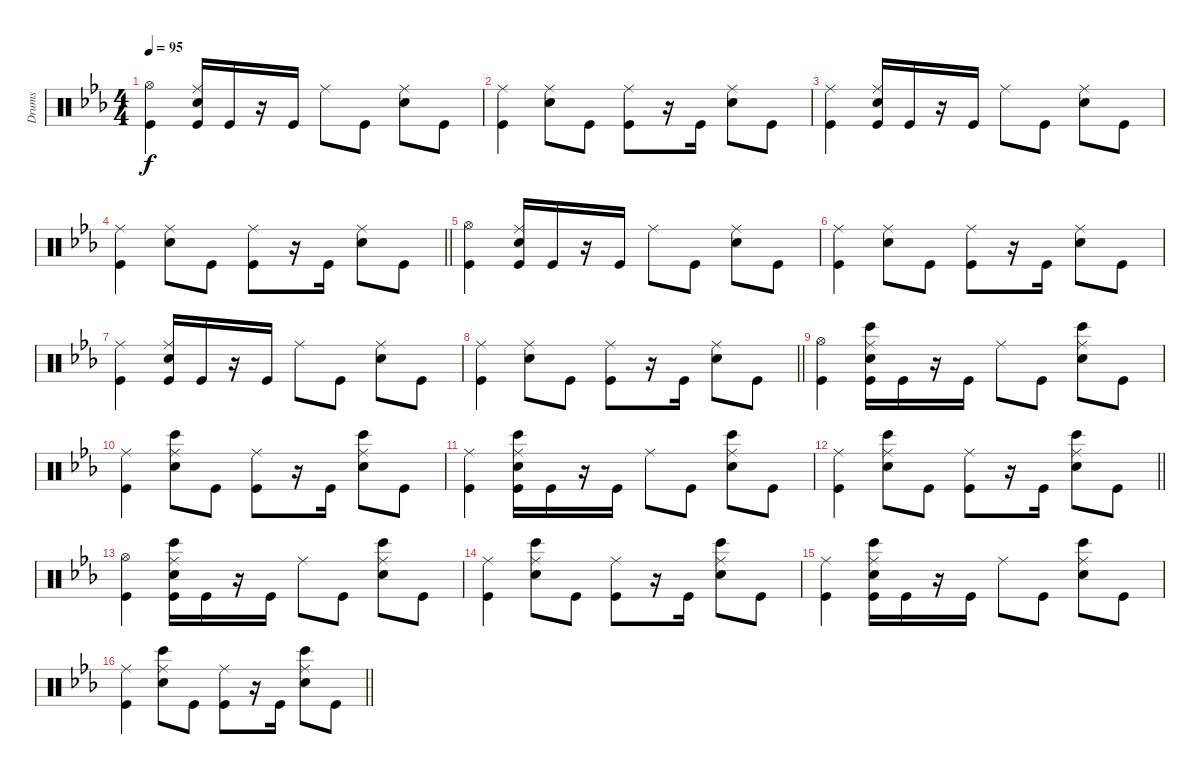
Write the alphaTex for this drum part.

\track ("Drums" "Drums") {instrument percussion}
\staff {score}
\articulation defaults
\ts (4 4)
\tempo 95
\clef neutral
\ks eb
("Kick (hit)" "Hi-Hat (open)").4{dy f} ("Kick (hit)" "Ride (middle)" "Snare (hit) 2").16 "Kick (hit)".16 r.16 "Kick (hit)".16 "Ride (middle)".8 "Kick (hit)".8 ("Ride (middle)" "Snare (hit) 2").8 "Kick (hit)".8 |
("Kick (hit)" "Ride (middle)").4 ("Ride (middle)" "Snare (hit) 2").8 "Kick (hit)".8 ("Kick (hit)" "Ride (middle)").8 r.16 "Kick (hit)".16 ("Ride (middle)" "Snare (hit) 2").8 "Kick (hit)".8 |
("Kick (hit)" "Ride (middle)").4 ("Kick (hit)" "Ride (middle)" "Snare (hit) 2").16 "Kick (hit)".16 r.16 "Kick (hit)".16 "Ride (middle)".8 "Kick (hit)".8 ("Ride (middle)" "Snare (hit) 2").8 "Kick (hit)".8 |
\barLineRight lightlight
("Kick (hit)" "Ride (middle)").4 ("Ride (middle)" "Snare (hit) 2").8 "Kick (hit)".8 ("Kick (hit)" "Ride (middle)").8 r.16 "Kick (hit)".16 ("Ride (middle)" "Snare (hit) 2").8 "Kick (hit)".8 |
("Kick (hit)" "Hi-Hat (open)").4 ("Kick (hit)" "Ride (middle)" "Snare (hit) 2").16 "Kick (hit)".16 r.16 "Kick (hit)".16 "Ride (middle)".8 "Kick (hit)".8 ("Ride (middle)" "Snare (hit) 2").8 "Kick (hit)".8 |
("Kick (hit)" "Ride (middle)").4 ("Ride (middle)" "Snare (hit) 2").8 "Kick (hit)".8 ("Kick (hit)" "Ride (middle)").8 r.16 "Kick (hit)".16 ("Ride (middle)" "Snare (hit) 2").8 "Kick (hit)".8 |
("Kick (hit)" "Ride (middle)").4 ("Kick (hit)" "Ride (middle)" "Snare (hit) 2").16 "Kick (hit)".16 r.16 "Kick (hit)".16 "Ride (middle)".8 "Kick (hit)".8 ("Ride (middle)" "Snare (hit) 2").8 "Kick (hit)".8 |
\barLineRight lightlight
("Kick (hit)" "Ride (middle)").4 ("Ride (middle)" "Snare (hit) 2").8 "Kick (hit)".8 ("Kick (hit)" "Ride (middle)").8 r.16 "Kick (hit)".16 ("Ride (middle)" "Snare (hit) 2").8 "Kick (hit)".8 |
("Kick (hit)" "Hi-Hat (open)").4 ("Kick (hit)" "Ride (middle)" "Snare (hit) 2" "Bongo High (hit)").16 "Kick (hit)".16 r.16 "Kick (hit)".16 "Ride (middle)".8 "Kick (hit)".8 ("Ride (middle)" "Snare (hit) 2" "Bongo High (hit)").8 "Kick (hit)".8 |
("Kick (hit)" "Ride (middle)").4 ("Ride (middle)" "Snare (hit) 2" "Bongo High (hit)").8 "Kick (hit)".8 ("Kick (hit)" "Ride (middle)").8 r.16 "Kick (hit)".16 ("Ride (middle)" "Snare (hit) 2" "Bongo High (hit)").8 "Kick (hit)".8 |
("Kick (hit)" "Ride (middle)").4 ("Kick (hit)" "Ride (middle)" "Snare (hit) 2" "Bongo High (hit)").16 "Kick (hit)".16 r.16 "Kick (hit)".16 "Ride (middle)".8 "Kick (hit)".8 ("Ride (middle)" "Snare (hit) 2" "Bongo High (hit)").8 "Kick (hit)".8 |
\barLineRight lightlight
("Kick (hit)" "Ride (middle)").4 ("Ride (middle)" "Snare (hit) 2" "Bongo High (hit)").8 "Kick (hit)".8 ("Kick (hit)" "Ride (middle)").8 r.16 "Kick (hit)".16 ("Ride (middle)" "Snare (hit) 2" "Bongo High (hit)").8 "Kick (hit)".8 |
("Kick (hit)" "Hi-Hat (open)").4 ("Kick (hit)" "Ride (middle)" "Snare (hit) 2" "Bongo High (hit)").16 "Kick (hit)".16 r.16 "Kick (hit)".16 "Ride (middle)".8 "Kick (hit)".8 ("Ride (middle)" "Snare (hit) 2" "Bongo High (hit)").8 "Kick (hit)".8 |
("Kick (hit)" "Ride (middle)").4 ("Ride (middle)" "Snare (hit) 2" "Bongo High (hit)").8 "Kick (hit)".8 ("Kick (hit)" "Ride (middle)").8 r.16 "Kick (hit)".16 ("Ride (middle)" "Snare (hit) 2" "Bongo High (hit)").8 "Kick (hit)".8 |
("Kick (hit)" "Ride (middle)").4 ("Kick (hit)" "Ride (middle)" "Snare (hit) 2" "Bongo High (hit)").16 "Kick (hit)".16 r.16 "Kick (hit)".16 "Ride (middle)".8 "Kick (hit)".8 ("Ride (middle)" "Snare (hit) 2" "Bongo High (hit)").8 "Kick (hit)".8 |
\barLineRight lightlight
("Kick (hit)" "Ride (middle)").4 ("Ride (middle)" "Snare (hit) 2" "Bongo High (hit)").8 "Kick (hit)".8 ("Kick (hit)" "Ride (middle)").8 r.16 "Kick (hit)".16 ("Ride (middle)" "Snare (hit) 2" "Bongo High (hit)").8 "Kick (hit)".8
